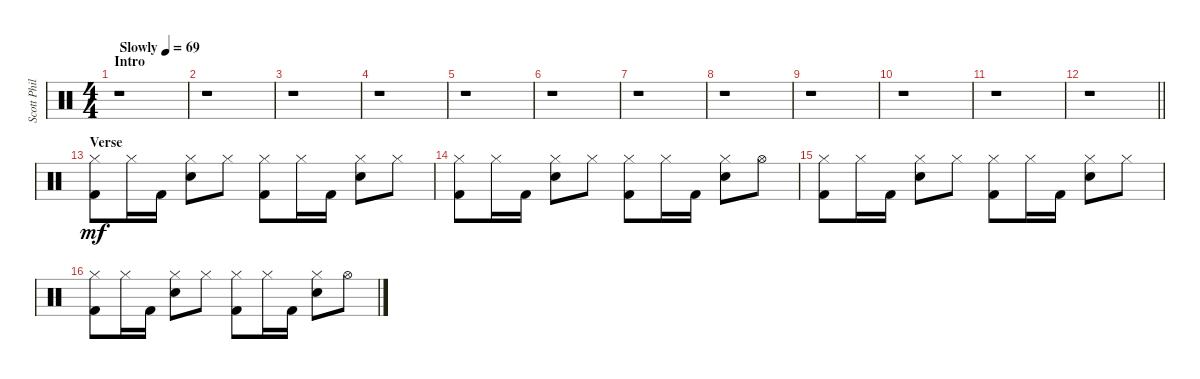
\track ("Scott Phillips" "Scott Phil") {instrument percussion}
\staff {score}
\articulation defaults
\ts (4 4)
\section ("" "Intro")
\tempo (69 "Slowly")
\clef neutral
\ks c
r.1{dy mf} |
r.1 |
r.1 |
r.1 |
r.1 |
r.1 |
r.1 |
r.1 |
r.1 |
r.1 |
r.1 |
\barLineRight lightlight
r.1 |
\section ("" "Verse")
("Hi-Hat (closed)" "Kick (hit) 2").8 "Hi-Hat (closed)".16 "Kick (hit) 2".16 ("Hi-Hat (closed)" "Electric Snare (hit)").8 "Hi-Hat (closed)".8 ("Hi-Hat (closed)" "Kick (hit) 2").8 "Hi-Hat (closed)".16 "Kick (hit) 2".16 ("Hi-Hat (closed)" "Electric Snare (hit)").8 "Hi-Hat (closed)".8 |
("Hi-Hat (closed)" "Kick (hit) 2").8 "Hi-Hat (closed)".16 "Kick (hit) 2".16 ("Hi-Hat (closed)" "Electric Snare (hit)").8 "Hi-Hat (closed)".8 ("Hi-Hat (closed)" "Kick (hit) 2").8 "Hi-Hat (closed)".16 "Kick (hit) 2".16 ("Hi-Hat (closed)" "Electric Snare (hit)").8 "Hi-Hat (open)".8 |
("Hi-Hat (closed)" "Kick (hit) 2").8 "Hi-Hat (closed)".16 "Kick (hit) 2".16 ("Hi-Hat (closed)" "Electric Snare (hit)").8 "Hi-Hat (closed)".8 ("Hi-Hat (closed)" "Kick (hit) 2").8 "Hi-Hat (closed)".16 "Kick (hit) 2".16 ("Hi-Hat (closed)" "Electric Snare (hit)").8 "Hi-Hat (closed)".8 |
("Hi-Hat (closed)" "Kick (hit) 2").8 "Hi-Hat (closed)".16 "Kick (hit) 2".16 ("Hi-Hat (closed)" "Electric Snare (hit)").8 "Hi-Hat (closed)".8 ("Hi-Hat (closed)" "Kick (hit) 2").8 "Hi-Hat (closed)".16 "Kick (hit) 2".16 ("Hi-Hat (closed)" "Electric Snare (hit)").8 "Hi-Hat (open)".8
